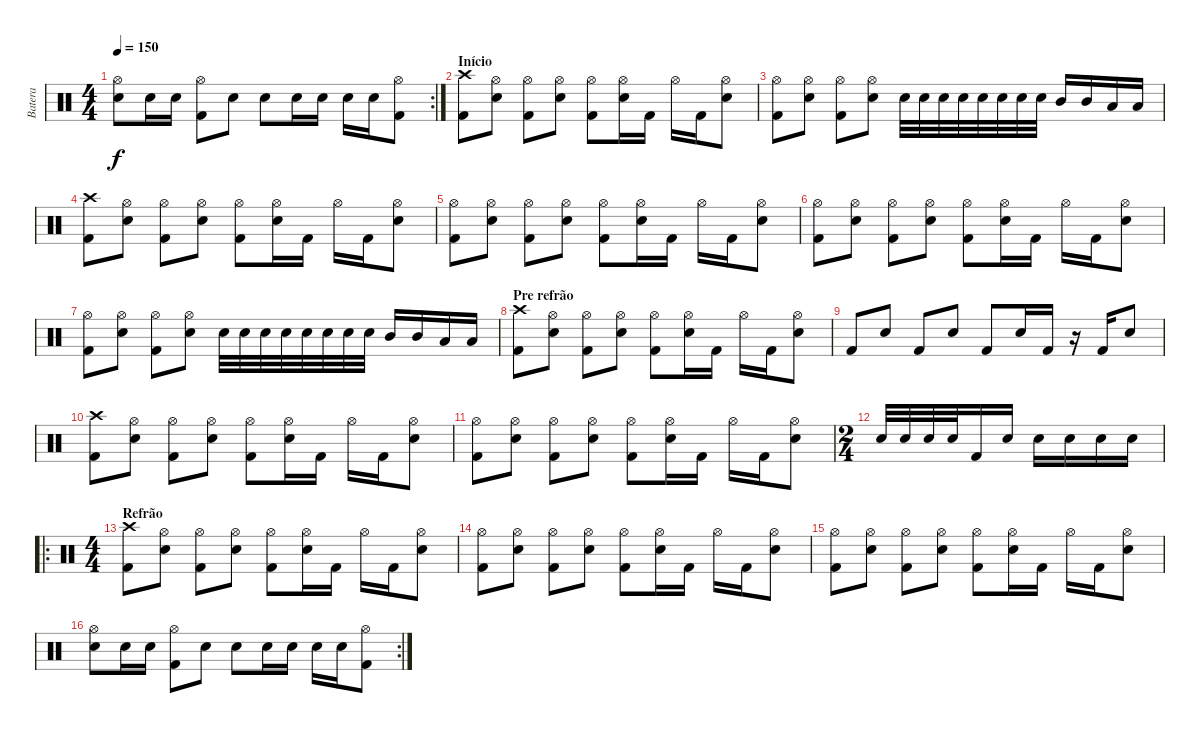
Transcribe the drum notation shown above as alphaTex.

\track ("Batera" "Batera") {instrument percussion}
\staff {score}
\articulation defaults
\rc 2
\ts (4 4)
\tempo 150
\clef neutral
\ks c
("Hi-Hat (open)" "Snare (hit) 2").8{dy f} "Snare (hit) 2".16 "Snare (hit) 2".16 ("Hi-Hat (open)" "Kick (hit) 2").8 "Snare (hit) 2".8 "Snare (hit) 2".8 "Snare (hit) 2".16 "Snare (hit) 2".16 "Snare (hit) 2".16 "Snare (hit) 2".16 ("Hi-Hat (open)" "Kick (hit) 2").8 |
\section ("" "Início")
("Crash high (hit)" "Kick (hit) 2").8 ("Hi-Hat (open)" "Snare (hit) 2").8 ("Hi-Hat (open)" "Kick (hit) 2").8 ("Hi-Hat (open)" "Snare (hit) 2").8 ("Hi-Hat (open)" "Kick (hit) 2").8 ("Hi-Hat (open)" "Snare (hit) 2").16 "Kick (hit) 2".16 "Hi-Hat (open)".16 "Kick (hit) 2".16 ("Hi-Hat (open)" "Snare (hit) 2").8 |
("Hi-Hat (open)" "Kick (hit) 2").8 ("Hi-Hat (open)" "Snare (hit) 2").8 ("Hi-Hat (open)" "Kick (hit) 2").8 ("Hi-Hat (open)" "Snare (hit) 2").8 "Snare (hit) 2".32 "Snare (hit) 2".32 "Snare (hit) 2".32 "Snare (hit) 2".32 "Snare (hit) 2".32 "Snare (hit) 2".32 "Snare (hit) 2".32 "Snare (hit) 2".32 "Mid Tom (hit)".16 "Mid Tom (hit)".16 "Low Tom (hit)".16 "Low Tom (hit)".16 |
("Crash high (hit)" "Kick (hit) 2").8 ("Hi-Hat (open)" "Snare (hit) 2").8 ("Hi-Hat (open)" "Kick (hit) 2").8 ("Hi-Hat (open)" "Snare (hit) 2").8 ("Hi-Hat (open)" "Kick (hit) 2").8 ("Hi-Hat (open)" "Snare (hit) 2").16 "Kick (hit) 2".16 "Hi-Hat (open)".16 "Kick (hit) 2".16 ("Hi-Hat (open)" "Snare (hit) 2").8 |
("Hi-Hat (open)" "Kick (hit) 2").8 ("Hi-Hat (open)" "Snare (hit) 2").8 ("Hi-Hat (open)" "Kick (hit) 2").8 ("Hi-Hat (open)" "Snare (hit) 2").8 ("Hi-Hat (open)" "Kick (hit) 2").8 ("Hi-Hat (open)" "Snare (hit) 2").16 "Kick (hit) 2".16 "Hi-Hat (open)".16 "Kick (hit) 2".16 ("Hi-Hat (open)" "Snare (hit) 2").8 |
("Hi-Hat (open)" "Kick (hit) 2").8 ("Hi-Hat (open)" "Snare (hit) 2").8 ("Hi-Hat (open)" "Kick (hit) 2").8 ("Hi-Hat (open)" "Snare (hit) 2").8 ("Hi-Hat (open)" "Kick (hit) 2").8 ("Hi-Hat (open)" "Snare (hit) 2").16 "Kick (hit) 2".16 "Hi-Hat (open)".16 "Kick (hit) 2".16 ("Hi-Hat (open)" "Snare (hit) 2").8 |
("Hi-Hat (open)" "Kick (hit) 2").8 ("Hi-Hat (open)" "Snare (hit) 2").8 ("Hi-Hat (open)" "Kick (hit) 2").8 ("Hi-Hat (open)" "Snare (hit) 2").8 "Snare (hit) 2".32 "Snare (hit) 2".32 "Snare (hit) 2".32 "Snare (hit) 2".32 "Snare (hit) 2".32 "Snare (hit) 2".32 "Snare (hit) 2".32 "Snare (hit) 2".32 "Mid Tom (hit)".16 "Mid Tom (hit)".16 "Low Tom (hit)".16 "Low Tom (hit)".16 |
\section ("" "Pre refrão")
("Crash high (hit)" "Kick (hit) 2").8 ("Hi-Hat (open)" "Snare (hit) 2").8 ("Hi-Hat (open)" "Kick (hit) 2").8 ("Hi-Hat (open)" "Snare (hit) 2").8 ("Hi-Hat (open)" "Kick (hit) 2").8 ("Hi-Hat (open)" "Snare (hit) 2").16 "Kick (hit) 2".16 "Hi-Hat (open)".16 "Kick (hit) 2".16 ("Hi-Hat (open)" "Snare (hit) 2").8 |
"Kick (hit) 2".8 "Snare (hit) 2".8 "Kick (hit) 2".8 "Snare (hit) 2".8 "Kick (hit) 2".8 "Snare (hit) 2".16 "Kick (hit) 2".16 r.16 "Kick (hit) 2".16 "Snare (hit) 2".8 |
("Crash high (hit)" "Kick (hit) 2").8 ("Hi-Hat (open)" "Snare (hit) 2").8 ("Hi-Hat (open)" "Kick (hit) 2").8 ("Hi-Hat (open)" "Snare (hit) 2").8 ("Hi-Hat (open)" "Kick (hit) 2").8 ("Hi-Hat (open)" "Snare (hit) 2").16 "Kick (hit) 2".16 "Hi-Hat (open)".16 "Kick (hit) 2".16 ("Hi-Hat (open)" "Snare (hit) 2").8 |
("Hi-Hat (open)" "Kick (hit) 2").8 ("Hi-Hat (open)" "Snare (hit) 2").8 ("Hi-Hat (open)" "Kick (hit) 2").8 ("Hi-Hat (open)" "Snare (hit) 2").8 ("Hi-Hat (open)" "Kick (hit) 2").8 ("Hi-Hat (open)" "Snare (hit) 2").16 "Kick (hit) 2".16 "Hi-Hat (open)".16 "Kick (hit) 2".16 ("Hi-Hat (open)" "Snare (hit) 2").8 |
\ts (2 4)
"Snare (hit) 2".32 "Snare (hit) 2".32 "Snare (hit) 2".32 "Snare (hit) 2".32 "Kick (hit) 2".16 "Snare (hit) 2".16 "Snare (hit) 2".16 "Snare (hit) 2".16 "Snare (hit) 2".16 "Snare (hit) 2".16 |
\ro
\ts (4 4)
\section ("" "Refrão")
("Crash high (hit)" "Kick (hit) 2").8 ("Hi-Hat (open)" "Snare (hit) 2").8 ("Hi-Hat (open)" "Kick (hit) 2").8 ("Hi-Hat (open)" "Snare (hit) 2").8 ("Hi-Hat (open)" "Kick (hit) 2").8 ("Hi-Hat (open)" "Snare (hit) 2").16 "Kick (hit) 2".16 "Hi-Hat (open)".16 "Kick (hit) 2".16 ("Hi-Hat (open)" "Snare (hit) 2").8 |
("Hi-Hat (open)" "Kick (hit) 2").8 ("Hi-Hat (open)" "Snare (hit) 2").8 ("Hi-Hat (open)" "Kick (hit) 2").8 ("Hi-Hat (open)" "Snare (hit) 2").8 ("Hi-Hat (open)" "Kick (hit) 2").8 ("Hi-Hat (open)" "Snare (hit) 2").16 "Kick (hit) 2".16 "Hi-Hat (open)".16 "Kick (hit) 2".16 ("Hi-Hat (open)" "Snare (hit) 2").8 |
("Hi-Hat (open)" "Kick (hit) 2").8 ("Hi-Hat (open)" "Snare (hit) 2").8 ("Hi-Hat (open)" "Kick (hit) 2").8 ("Hi-Hat (open)" "Snare (hit) 2").8 ("Hi-Hat (open)" "Kick (hit) 2").8 ("Hi-Hat (open)" "Snare (hit) 2").16 "Kick (hit) 2".16 "Hi-Hat (open)".16 "Kick (hit) 2".16 ("Hi-Hat (open)" "Snare (hit) 2").8 |
\rc 2
("Hi-Hat (open)" "Snare (hit) 2").8 "Snare (hit) 2".16 "Snare (hit) 2".16 ("Hi-Hat (open)" "Kick (hit) 2").8 "Snare (hit) 2".8 "Snare (hit) 2".8 "Snare (hit) 2".16 "Snare (hit) 2".16 "Snare (hit) 2".16 "Snare (hit) 2".16 ("Hi-Hat (open)" "Kick (hit) 2").8
